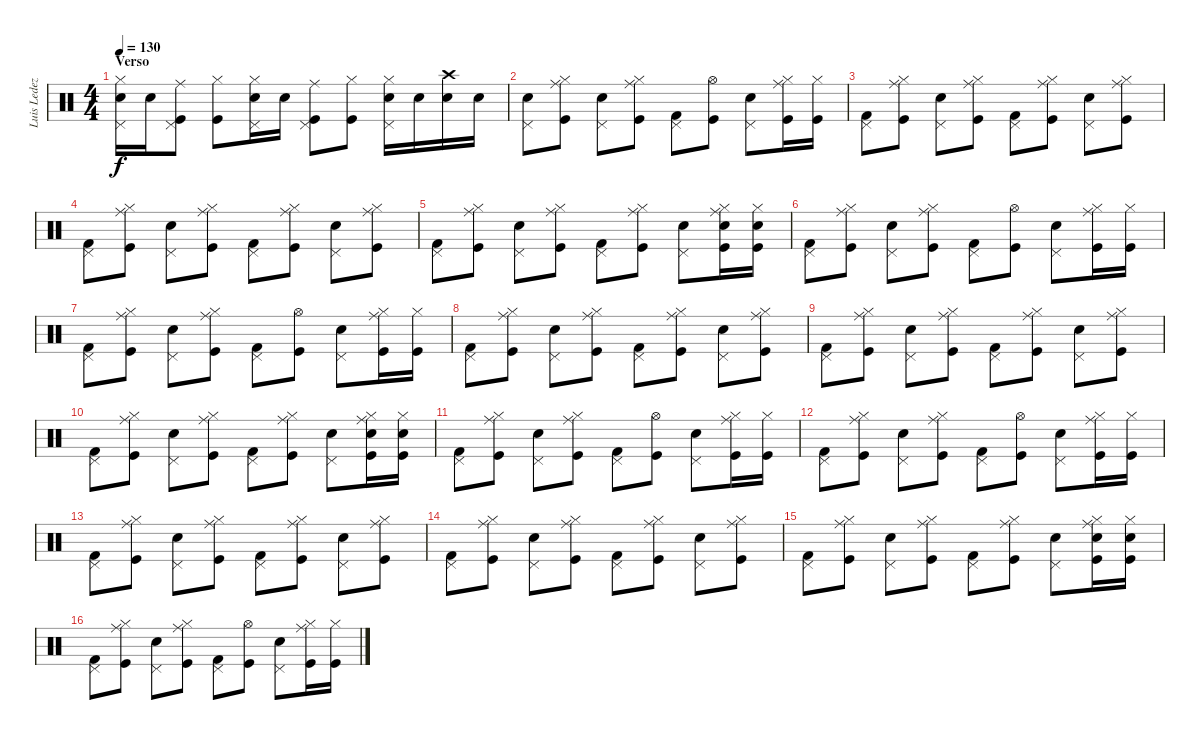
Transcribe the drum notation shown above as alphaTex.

\track ("Luis Ledezma (bateria)" "Luis Ledez") {instrument percussion}
\staff {score}
\articulation defaults
\ts (4 4)
\section ("" "Verso")
\tempo 130
\clef neutral
\ks c
("Hi-Hat (closed)" "Pedal Hi-Hat (hit)" "Snare (hit) 2").16{dy f} "Snare (hit) 2".16 ("Ride (middle)" "Pedal Hi-Hat (hit)" "Kick (hit)").8 ("Hi-Hat (closed)" "Kick (hit)").8 ("Hi-Hat (closed)" "Pedal Hi-Hat (hit)" "Snare (hit) 2").16 "Snare (hit) 2".16 ("Ride (middle)" "Pedal Hi-Hat (hit)" "Kick (hit)").8 ("Hi-Hat (closed)" "Kick (hit)").8 ("Hi-Hat (closed)" "Pedal Hi-Hat (hit)" "Snare (hit) 2").16 "Snare (hit) 2".16 ("Crash high (hit)" "Snare (hit) 2").16 "Snare (hit) 2".16 |
("Pedal Hi-Hat (hit)" "Snare (hit) 2").8 ("Ride (middle)" "Hi-Hat (closed)" "Kick (hit)").8 ("Pedal Hi-Hat (hit)" "Snare (hit) 2").8 ("Ride (middle)" "Hi-Hat (closed)" "Kick (hit)").8 ("Pedal Hi-Hat (hit)" "Kick (hit) 2").8 ("Hi-Hat (open)" "Kick (hit)").8 ("Pedal Hi-Hat (hit)" "Snare (hit) 2").8 ("Ride (middle)" "Hi-Hat (closed)" "Kick (hit)").16 ("Hi-Hat (closed)" "Kick (hit)").16 |
("Pedal Hi-Hat (hit)" "Kick (hit) 2").8 ("Ride (middle)" "Hi-Hat (closed)" "Kick (hit)").8 ("Pedal Hi-Hat (hit)" "Snare (hit) 2").8 ("Ride (middle)" "Hi-Hat (closed)" "Kick (hit)").8 ("Pedal Hi-Hat (hit)" "Kick (hit) 2").8 ("Ride (middle)" "Hi-Hat (closed)" "Kick (hit)").8 ("Pedal Hi-Hat (hit)" "Snare (hit) 2").8 ("Ride (middle)" "Hi-Hat (closed)" "Kick (hit)").8 |
("Pedal Hi-Hat (hit)" "Kick (hit) 2").8 ("Ride (middle)" "Hi-Hat (closed)" "Kick (hit)").8 ("Pedal Hi-Hat (hit)" "Snare (hit) 2").8 ("Ride (middle)" "Hi-Hat (closed)" "Kick (hit)").8 ("Pedal Hi-Hat (hit)" "Kick (hit) 2").8 ("Ride (middle)" "Hi-Hat (closed)" "Kick (hit)").8 ("Pedal Hi-Hat (hit)" "Snare (hit) 2").8 ("Ride (middle)" "Hi-Hat (closed)" "Kick (hit)").8 |
("Pedal Hi-Hat (hit)" "Kick (hit) 2").8 ("Ride (middle)" "Hi-Hat (closed)" "Kick (hit)").8 ("Pedal Hi-Hat (hit)" "Snare (hit) 2").8 ("Ride (middle)" "Hi-Hat (closed)" "Kick (hit)").8 ("Pedal Hi-Hat (hit)" "Kick (hit) 2").8 ("Ride (middle)" "Hi-Hat (closed)" "Kick (hit)").8 ("Pedal Hi-Hat (hit)" "Snare (hit) 2").8 ("Ride (middle)" "Hi-Hat (closed)" "Snare (hit) 2" "Kick (hit)").16 ("Hi-Hat (closed)" "Snare (hit) 2" "Kick (hit)").16 |
("Pedal Hi-Hat (hit)" "Kick (hit) 2").8 ("Ride (middle)" "Hi-Hat (closed)" "Kick (hit)").8 ("Pedal Hi-Hat (hit)" "Snare (hit) 2").8 ("Ride (middle)" "Hi-Hat (closed)" "Kick (hit)").8 ("Pedal Hi-Hat (hit)" "Kick (hit) 2").8 ("Hi-Hat (open)" "Kick (hit)").8 ("Pedal Hi-Hat (hit)" "Snare (hit) 2").8 ("Ride (middle)" "Hi-Hat (closed)" "Kick (hit)").16 ("Hi-Hat (closed)" "Kick (hit)").16 |
("Pedal Hi-Hat (hit)" "Kick (hit) 2").8 ("Ride (middle)" "Hi-Hat (closed)" "Kick (hit)").8 ("Pedal Hi-Hat (hit)" "Snare (hit) 2").8 ("Ride (middle)" "Hi-Hat (closed)" "Kick (hit)").8 ("Pedal Hi-Hat (hit)" "Kick (hit) 2").8 ("Hi-Hat (open)" "Kick (hit)").8 ("Pedal Hi-Hat (hit)" "Snare (hit) 2").8 ("Ride (middle)" "Hi-Hat (closed)" "Kick (hit)").16 ("Hi-Hat (closed)" "Kick (hit)").16 |
("Pedal Hi-Hat (hit)" "Kick (hit) 2").8 ("Ride (middle)" "Hi-Hat (closed)" "Kick (hit)").8 ("Pedal Hi-Hat (hit)" "Snare (hit) 2").8 ("Ride (middle)" "Hi-Hat (closed)" "Kick (hit)").8 ("Pedal Hi-Hat (hit)" "Kick (hit) 2").8 ("Ride (middle)" "Hi-Hat (closed)" "Kick (hit)").8 ("Pedal Hi-Hat (hit)" "Snare (hit) 2").8 ("Ride (middle)" "Hi-Hat (closed)" "Kick (hit)").8 |
("Pedal Hi-Hat (hit)" "Kick (hit) 2").8 ("Ride (middle)" "Hi-Hat (closed)" "Kick (hit)").8 ("Pedal Hi-Hat (hit)" "Snare (hit) 2").8 ("Ride (middle)" "Hi-Hat (closed)" "Kick (hit)").8 ("Pedal Hi-Hat (hit)" "Kick (hit) 2").8 ("Ride (middle)" "Hi-Hat (closed)" "Kick (hit)").8 ("Pedal Hi-Hat (hit)" "Snare (hit) 2").8 ("Ride (middle)" "Hi-Hat (closed)" "Kick (hit)").8 |
("Pedal Hi-Hat (hit)" "Kick (hit) 2").8 ("Ride (middle)" "Hi-Hat (closed)" "Kick (hit)").8 ("Pedal Hi-Hat (hit)" "Snare (hit) 2").8 ("Ride (middle)" "Hi-Hat (closed)" "Kick (hit)").8 ("Pedal Hi-Hat (hit)" "Kick (hit) 2").8 ("Ride (middle)" "Hi-Hat (closed)" "Kick (hit)").8 ("Pedal Hi-Hat (hit)" "Snare (hit) 2").8 ("Ride (middle)" "Hi-Hat (closed)" "Snare (hit) 2" "Kick (hit)").16 ("Hi-Hat (closed)" "Snare (hit) 2" "Kick (hit)").16 |
("Pedal Hi-Hat (hit)" "Kick (hit) 2").8 ("Ride (middle)" "Hi-Hat (closed)" "Kick (hit)").8 ("Pedal Hi-Hat (hit)" "Snare (hit) 2").8 ("Ride (middle)" "Hi-Hat (closed)" "Kick (hit)").8 ("Pedal Hi-Hat (hit)" "Kick (hit) 2").8 ("Hi-Hat (open)" "Kick (hit)").8 ("Pedal Hi-Hat (hit)" "Snare (hit) 2").8 ("Ride (middle)" "Hi-Hat (closed)" "Kick (hit)").16 ("Hi-Hat (closed)" "Kick (hit)").16 |
("Pedal Hi-Hat (hit)" "Kick (hit) 2").8 ("Ride (middle)" "Hi-Hat (closed)" "Kick (hit)").8 ("Pedal Hi-Hat (hit)" "Snare (hit) 2").8 ("Ride (middle)" "Hi-Hat (closed)" "Kick (hit)").8 ("Pedal Hi-Hat (hit)" "Kick (hit) 2").8 ("Hi-Hat (open)" "Kick (hit)").8 ("Pedal Hi-Hat (hit)" "Snare (hit) 2").8 ("Ride (middle)" "Hi-Hat (closed)" "Kick (hit)").16 ("Hi-Hat (closed)" "Kick (hit)").16 |
("Pedal Hi-Hat (hit)" "Kick (hit) 2").8 ("Ride (middle)" "Hi-Hat (closed)" "Kick (hit)").8 ("Pedal Hi-Hat (hit)" "Snare (hit) 2").8 ("Ride (middle)" "Hi-Hat (closed)" "Kick (hit)").8 ("Pedal Hi-Hat (hit)" "Kick (hit) 2").8 ("Ride (middle)" "Hi-Hat (closed)" "Kick (hit)").8 ("Pedal Hi-Hat (hit)" "Snare (hit) 2").8 ("Ride (middle)" "Hi-Hat (closed)" "Kick (hit)").8 |
("Pedal Hi-Hat (hit)" "Kick (hit) 2").8 ("Ride (middle)" "Hi-Hat (closed)" "Kick (hit)").8 ("Pedal Hi-Hat (hit)" "Snare (hit) 2").8 ("Ride (middle)" "Hi-Hat (closed)" "Kick (hit)").8 ("Pedal Hi-Hat (hit)" "Kick (hit) 2").8 ("Ride (middle)" "Hi-Hat (closed)" "Kick (hit)").8 ("Pedal Hi-Hat (hit)" "Snare (hit) 2").8 ("Ride (middle)" "Hi-Hat (closed)" "Kick (hit)").8 |
("Pedal Hi-Hat (hit)" "Kick (hit) 2").8 ("Ride (middle)" "Hi-Hat (closed)" "Kick (hit)").8 ("Pedal Hi-Hat (hit)" "Snare (hit) 2").8 ("Ride (middle)" "Hi-Hat (closed)" "Kick (hit)").8 ("Pedal Hi-Hat (hit)" "Kick (hit) 2").8 ("Ride (middle)" "Hi-Hat (closed)" "Kick (hit)").8 ("Pedal Hi-Hat (hit)" "Snare (hit) 2").8 ("Ride (middle)" "Hi-Hat (closed)" "Snare (hit) 2" "Kick (hit)").16 ("Hi-Hat (closed)" "Snare (hit) 2" "Kick (hit)").16 |
("Pedal Hi-Hat (hit)" "Kick (hit) 2").8 ("Ride (middle)" "Hi-Hat (closed)" "Kick (hit)").8 ("Pedal Hi-Hat (hit)" "Snare (hit) 2").8 ("Ride (middle)" "Hi-Hat (closed)" "Kick (hit)").8 ("Pedal Hi-Hat (hit)" "Kick (hit) 2").8 ("Hi-Hat (open)" "Kick (hit)").8 ("Pedal Hi-Hat (hit)" "Snare (hit) 2").8 ("Ride (middle)" "Hi-Hat (closed)" "Kick (hit)").16 ("Hi-Hat (closed)" "Kick (hit)").16
